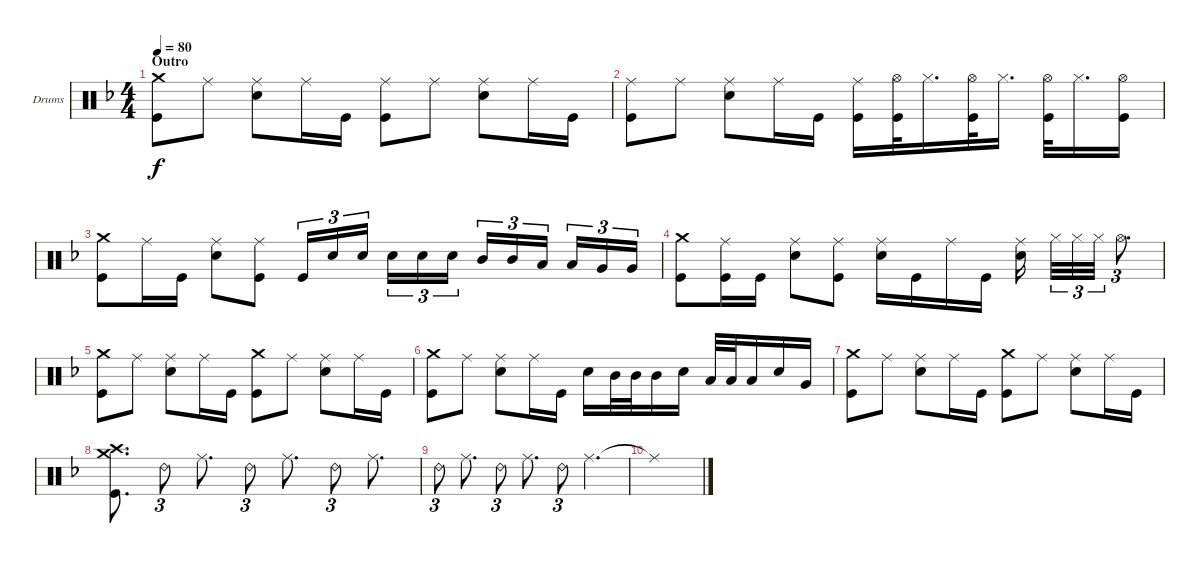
\bracketExtendMode groupsimilarinstruments
\firstSystemTrackNameOrientation horizontal
\otherSystemsTrackNameOrientation horizontal
\track ("drums (Anton Zulganov)" "Drums") {instrument percussion}
\staff {score}
\articulation defaults
\ts (4 4)
\section ("" "Outro")
\tempo 80
\clef neutral
\ks dminor
("Kick (hit)" "Crash medium (hit)").8{dy f} "Ride (middle)".8 ("Snare (hit) 2" "Ride (middle)").8 "Ride (middle)".16 "Kick (hit)".16 ("Kick (hit)" "Ride (middle)").8 "Ride (middle)".8 ("Snare (hit) 2" "Ride (middle)").8 "Ride (middle)".16 "Kick (hit)".16 |
("Kick (hit)" "Ride (middle)").8 "Ride (middle)".8 ("Snare (hit) 2" "Ride (middle)").8 "Ride (middle)".16 "Kick (hit)".16 ("Kick (hit)" "Ride (middle)").16 ("Hi-Hat (open)" "Kick (hit)").32 "Hi-Hat (closed)".16{d} ("Hi-Hat (open)" "Kick (hit)").32 "Hi-Hat (closed)".16{d} ("Hi-Hat (open)" "Kick (hit)").32 "Hi-Hat (closed)".16{d} ("Hi-Hat (open)" "Kick (hit)").16 |
\section ("" "")
("Kick (hit)" "Crash medium (hit)").8 "Ride (middle)".16 "Kick (hit)".16 ("Snare (hit) 2" "Ride (middle)").8 ("Kick (hit)" "Ride (middle)").8 "Kick (hit)".16{tu (3 2)} "Snare (hit) 2".16{tu (3 2)} "Snare (hit) 2".16{tu (3 2)} "Snare (hit) 2".16{tu (3 2)} "Snare (hit) 2".16{tu (3 2)} "Snare (hit) 2".16{tu (3 2)} "Mid Tom (hit)".16{tu (3 2)} "Mid Tom (hit)".16{tu (3 2)} "Low Tom (hit)".16{tu (3 2)} "Low Tom (hit)".16{tu (3 2)} "Very Low Tom (hit)".16{tu (3 2)} "Very Low Tom (hit)".16{tu (3 2)} |
("Kick (hit)" "Crash medium (hit)").8 ("Kick (hit)" "Ride (middle)").16 "Kick (hit)".16 ("Snare (hit) 2" "Ride (middle)").8 ("Kick (hit)" "Ride (middle)").8 ("Snare (hit) 2" "Ride (middle)").16 "Kick (hit)".16 "Ride (middle)".16 "Kick (hit)".16 ("Snare (hit) 2" "Ride (middle)").16 "Hi-Hat (closed)".32{tu (3 2)} "Hi-Hat (closed)".32{tu (3 2)} "Hi-Hat (closed)".32{tu (3 2)} "Hi-Hat (open)".8{d tu (3 2)} |
("Kick (hit)" "Crash medium (hit)").8 "Ride (middle)".8 ("Snare (hit) 2" "Ride (middle)").8 "Ride (middle)".16 "Kick (hit)".16 ("Kick (hit)" "Crash medium (hit)").8 "Ride (middle)".8 ("Snare (hit) 2" "Ride (middle)").8 "Ride (middle)".16 "Kick (hit)".16 |
("Kick (hit)" "Crash medium (hit)").8 "Ride (middle)".8 ("Snare (hit) 2" "Ride (middle)").8 "Ride (middle)".16 "Kick (hit)".16 "Snare (hit) 2".16 "Mid Tom (hit)".32 "Mid Tom (hit)".32 "Mid Tom (hit)".16 "Snare (hit) 2".16 "Low Tom (hit)".32 "Low Tom (hit)".32 "Low Tom (hit)".16 "Snare (hit) 2".16 "Very Low Tom (hit)".16 |
("Crash medium (hit)" "Kick (hit)").8 "Ride (middle)".8 ("Snare (hit) 2" "Ride (middle)").8 "Ride (middle)".16 "Kick (hit)".16 ("Crash medium (hit)" "Kick (hit)").8 "Ride (middle)".8 ("Snare (hit) 2" "Ride (middle)").8 "Ride (middle)".16 "Kick (hit)".16 |
("Crash medium (hit)" "Kick (hit)" "Crash high (hit)").8{d} "Ride (bell) 2".8{tu (3 2)} "Ride (middle)".8{d} "Ride (bell) 2".8{tu (3 2)} "Ride (middle)".8{d} "Ride (bell) 2".8{tu (3 2)} "Ride (middle)".8{d} |
"Ride (bell) 2".8{tu (3 2)} "Ride (middle)".8{d} "Ride (bell) 2".8{tu (3 2)} "Ride (middle)".8{d} "Ride (bell) 2".8{tu (3 2)} "Ride (middle)".4{d} |
"Ride (middle)"{t}.1
